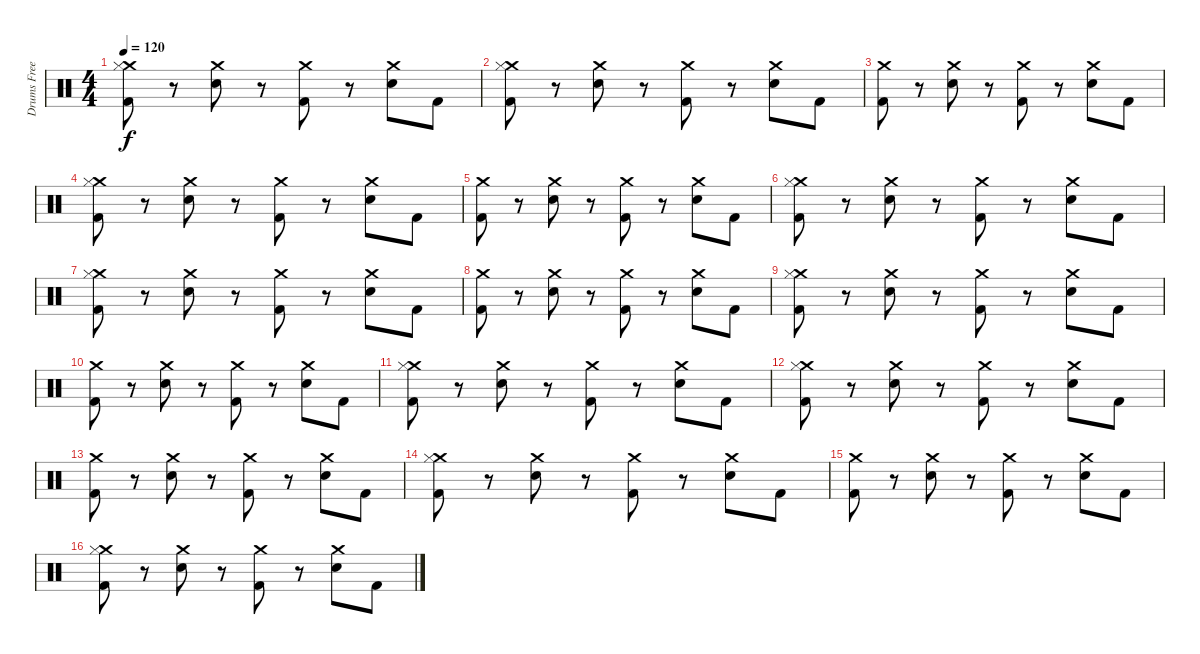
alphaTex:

\track ("Drums Freese" "Drums Free") {instrument percussion}
\staff {score}
\articulation defaults
\ts (4 4)
\tempo 120
\clef neutral
\ks c
("Crash medium (hit)" "Hi-Hat (closed)" "Kick (hit) 2").8{dy f} r.8 ("Crash medium (hit)" "Snare (hit) 2").8 r.8 ("Crash medium (hit)" "Kick (hit) 2").8 r.8 ("Crash medium (hit)" "Snare (hit) 2").8 "Kick (hit) 2".8 |
("Crash medium (hit)" "Hi-Hat (closed)" "Kick (hit) 2").8 r.8 ("Crash medium (hit)" "Snare (hit) 2").8 r.8 ("Crash medium (hit)" "Kick (hit) 2").8 r.8 ("Crash medium (hit)" "Snare (hit) 2").8 "Kick (hit) 2".8 |
("Crash medium (hit)" "Kick (hit) 2").8 r.8 ("Crash medium (hit)" "Snare (hit) 2").8 r.8 ("Crash medium (hit)" "Kick (hit) 2").8 r.8 ("Crash medium (hit)" "Snare (hit) 2").8 "Kick (hit) 2".8 |
("Crash medium (hit)" "Hi-Hat (closed)" "Kick (hit) 2").8 r.8 ("Crash medium (hit)" "Snare (hit) 2").8 r.8 ("Crash medium (hit)" "Kick (hit) 2").8 r.8 ("Crash medium (hit)" "Snare (hit) 2").8 "Kick (hit) 2".8 |
("Crash medium (hit)" "Kick (hit) 2").8 r.8 ("Crash medium (hit)" "Snare (hit) 2").8 r.8 ("Crash medium (hit)" "Kick (hit) 2").8 r.8 ("Crash medium (hit)" "Snare (hit) 2").8 "Kick (hit) 2".8 |
("Crash medium (hit)" "Hi-Hat (closed)" "Kick (hit) 2").8 r.8 ("Crash medium (hit)" "Snare (hit) 2").8 r.8 ("Crash medium (hit)" "Kick (hit) 2").8 r.8 ("Crash medium (hit)" "Snare (hit) 2").8 "Kick (hit) 2".8 |
("Crash medium (hit)" "Hi-Hat (closed)" "Kick (hit) 2").8 r.8 ("Crash medium (hit)" "Snare (hit) 2").8 r.8 ("Crash medium (hit)" "Kick (hit) 2").8 r.8 ("Crash medium (hit)" "Snare (hit) 2").8 "Kick (hit) 2".8 |
("Crash medium (hit)" "Kick (hit) 2").8 r.8 ("Crash medium (hit)" "Snare (hit) 2").8 r.8 ("Crash medium (hit)" "Kick (hit) 2").8 r.8 ("Crash medium (hit)" "Snare (hit) 2").8 "Kick (hit) 2".8 |
("Crash medium (hit)" "Hi-Hat (closed)" "Kick (hit) 2").8 r.8 ("Crash medium (hit)" "Snare (hit) 2").8 r.8 ("Crash medium (hit)" "Kick (hit) 2").8 r.8 ("Crash medium (hit)" "Snare (hit) 2").8 "Kick (hit) 2".8 |
("Crash medium (hit)" "Kick (hit) 2").8 r.8 ("Crash medium (hit)" "Snare (hit) 2").8 r.8 ("Crash medium (hit)" "Kick (hit) 2").8 r.8 ("Crash medium (hit)" "Snare (hit) 2").8 "Kick (hit) 2".8 |
("Crash medium (hit)" "Hi-Hat (closed)" "Kick (hit) 2").8 r.8 ("Crash medium (hit)" "Snare (hit) 2").8 r.8 ("Crash medium (hit)" "Kick (hit) 2").8 r.8 ("Crash medium (hit)" "Snare (hit) 2").8 "Kick (hit) 2".8 |
("Crash medium (hit)" "Hi-Hat (closed)" "Kick (hit) 2").8 r.8 ("Crash medium (hit)" "Snare (hit) 2").8 r.8 ("Crash medium (hit)" "Kick (hit) 2").8 r.8 ("Crash medium (hit)" "Snare (hit) 2").8 "Kick (hit) 2".8 |
("Crash medium (hit)" "Kick (hit) 2").8 r.8 ("Crash medium (hit)" "Snare (hit) 2").8 r.8 ("Crash medium (hit)" "Kick (hit) 2").8 r.8 ("Crash medium (hit)" "Snare (hit) 2").8 "Kick (hit) 2".8 |
("Crash medium (hit)" "Hi-Hat (closed)" "Kick (hit) 2").8 r.8 ("Crash medium (hit)" "Snare (hit) 2").8 r.8 ("Crash medium (hit)" "Kick (hit) 2").8 r.8 ("Crash medium (hit)" "Snare (hit) 2").8 "Kick (hit) 2".8 |
("Crash medium (hit)" "Kick (hit) 2").8 r.8 ("Crash medium (hit)" "Snare (hit) 2").8 r.8 ("Crash medium (hit)" "Kick (hit) 2").8 r.8 ("Crash medium (hit)" "Snare (hit) 2").8 "Kick (hit) 2".8 |
("Crash medium (hit)" "Hi-Hat (closed)" "Kick (hit) 2").8 r.8 ("Crash medium (hit)" "Snare (hit) 2").8 r.8 ("Crash medium (hit)" "Kick (hit) 2").8 r.8 ("Crash medium (hit)" "Snare (hit) 2").8 "Kick (hit) 2".8
